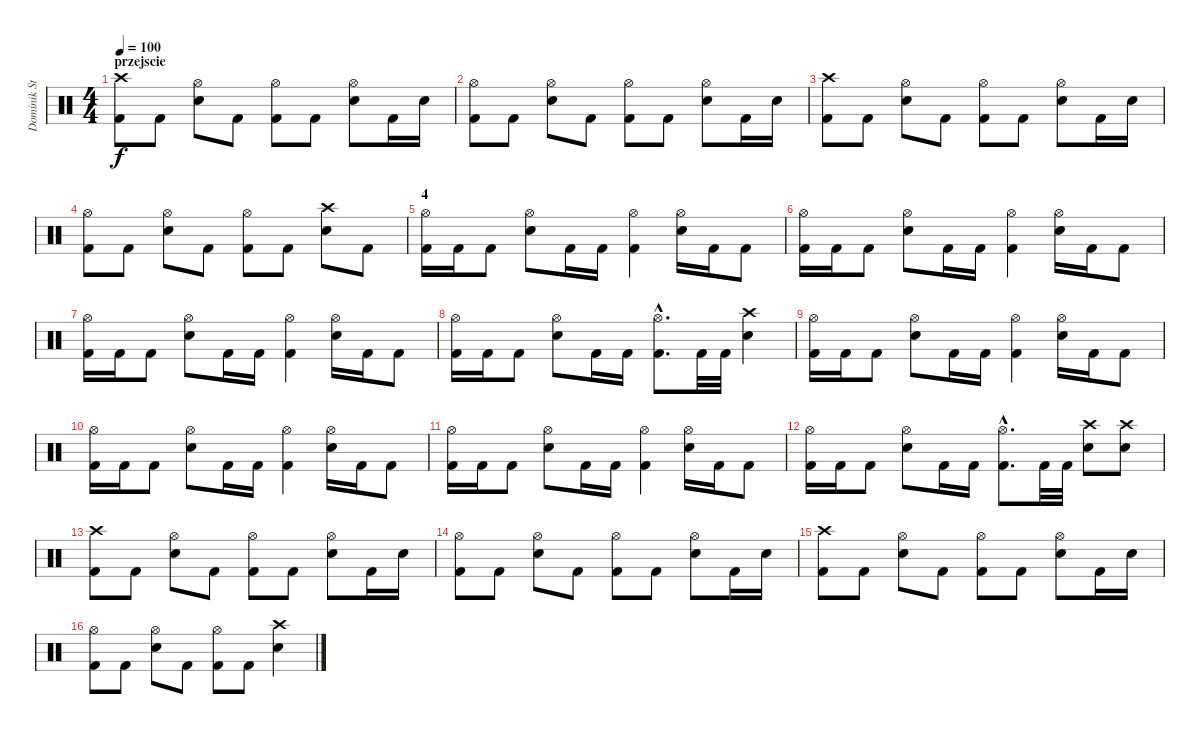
\track ("Dominik Storch" "Dominik St") {instrument percussion}
\staff {score}
\articulation defaults
\ts (4 4)
\section ("" "przejscie")
\tempo 100
\clef neutral
\ks c
("Crash high (hit)" "Kick (hit) 2").8{dy f} "Kick (hit) 2".8 ("Hi-Hat (open)" "Snare (hit) 2").8 "Kick (hit) 2".8 ("Hi-Hat (open)" "Kick (hit) 2").8 "Kick (hit) 2".8 ("Hi-Hat (open)" "Snare (hit) 2").8 "Kick (hit) 2".16 "Snare (hit) 2".16 |
("Hi-Hat (open)" "Kick (hit) 2").8 "Kick (hit) 2".8 ("Hi-Hat (open)" "Snare (hit) 2").8 "Kick (hit) 2".8 ("Hi-Hat (open)" "Kick (hit) 2").8 "Kick (hit) 2".8 ("Hi-Hat (open)" "Snare (hit) 2").8 "Kick (hit) 2".16 "Snare (hit) 2".16 |
("Crash high (hit)" "Kick (hit) 2").8 "Kick (hit) 2".8 ("Hi-Hat (open)" "Snare (hit) 2").8 "Kick (hit) 2".8 ("Hi-Hat (open)" "Kick (hit) 2").8 "Kick (hit) 2".8 ("Hi-Hat (open)" "Snare (hit) 2").8 "Kick (hit) 2".16 "Snare (hit) 2".16 |
("Hi-Hat (open)" "Kick (hit) 2").8 "Kick (hit) 2".8 ("Hi-Hat (open)" "Snare (hit) 2").8 "Kick (hit) 2".8 ("Hi-Hat (open)" "Kick (hit) 2").8 "Kick (hit) 2".8 ("Crash high (hit)" "Snare (hit) 2").8 "Kick (hit) 2".8 |
\section ("" "4")
("Hi-Hat (open)" "Kick (hit) 2").16 "Kick (hit) 2".16 "Kick (hit) 2".8 ("Hi-Hat (open)" "Snare (hit) 2").8 "Kick (hit) 2".16 "Kick (hit) 2".16 ("Hi-Hat (open)" "Kick (hit) 2").4 ("Hi-Hat (open)" "Snare (hit) 2").16 "Kick (hit) 2".16 "Kick (hit) 2".8 |
("Hi-Hat (open)" "Kick (hit) 2").16 "Kick (hit) 2".16 "Kick (hit) 2".8 ("Hi-Hat (open)" "Snare (hit) 2").8 "Kick (hit) 2".16 "Kick (hit) 2".16 ("Hi-Hat (open)" "Kick (hit) 2").4 ("Hi-Hat (open)" "Snare (hit) 2").16 "Kick (hit) 2".16 "Kick (hit) 2".8 |
("Hi-Hat (open)" "Kick (hit) 2").16 "Kick (hit) 2".16 "Kick (hit) 2".8 ("Hi-Hat (open)" "Snare (hit) 2").8 "Kick (hit) 2".16 "Kick (hit) 2".16 ("Hi-Hat (open)" "Kick (hit) 2").4 ("Hi-Hat (open)" "Snare (hit) 2").16 "Kick (hit) 2".16 "Kick (hit) 2".8 |
("Hi-Hat (open)" "Kick (hit) 2").16 "Kick (hit) 2".16 "Kick (hit) 2".8 ("Hi-Hat (open)" "Snare (hit) 2").8 "Kick (hit) 2".16 "Kick (hit) 2".16 ("Hi-Hat (open)"{hac} "Kick (hit) 2"{hac}).8{d} "Kick (hit) 2".32 "Kick (hit) 2".32 ("Crash high (hit)" "Snare (hit) 2").4 |
("Hi-Hat (open)" "Kick (hit) 2").16 "Kick (hit) 2".16 "Kick (hit) 2".8 ("Hi-Hat (open)" "Snare (hit) 2").8 "Kick (hit) 2".16 "Kick (hit) 2".16 ("Hi-Hat (open)" "Kick (hit) 2").4 ("Hi-Hat (open)" "Snare (hit) 2").16 "Kick (hit) 2".16 "Kick (hit) 2".8 |
("Hi-Hat (open)" "Kick (hit) 2").16 "Kick (hit) 2".16 "Kick (hit) 2".8 ("Hi-Hat (open)" "Snare (hit) 2").8 "Kick (hit) 2".16 "Kick (hit) 2".16 ("Hi-Hat (open)" "Kick (hit) 2").4 ("Hi-Hat (open)" "Snare (hit) 2").16 "Kick (hit) 2".16 "Kick (hit) 2".8 |
("Hi-Hat (open)" "Kick (hit) 2").16 "Kick (hit) 2".16 "Kick (hit) 2".8 ("Hi-Hat (open)" "Snare (hit) 2").8 "Kick (hit) 2".16 "Kick (hit) 2".16 ("Hi-Hat (open)" "Kick (hit) 2").4 ("Hi-Hat (open)" "Snare (hit) 2").16 "Kick (hit) 2".16 "Kick (hit) 2".8 |
("Hi-Hat (open)" "Kick (hit) 2").16 "Kick (hit) 2".16 "Kick (hit) 2".8 ("Hi-Hat (open)" "Snare (hit) 2").8 "Kick (hit) 2".16 "Kick (hit) 2".16 ("Hi-Hat (open)"{hac} "Kick (hit) 2"{hac}).8{d} "Kick (hit) 2".32 "Kick (hit) 2".32 ("Crash high (hit)" "Snare (hit) 2").8 ("Crash high (hit)" "Snare (hit) 2").8 |
("Crash high (hit)" "Kick (hit) 2").8 "Kick (hit) 2".8 ("Hi-Hat (open)" "Snare (hit) 2").8 "Kick (hit) 2".8 ("Hi-Hat (open)" "Kick (hit) 2").8 "Kick (hit) 2".8 ("Hi-Hat (open)" "Snare (hit) 2").8 "Kick (hit) 2".16 "Snare (hit) 2".16 |
("Hi-Hat (open)" "Kick (hit) 2").8 "Kick (hit) 2".8 ("Hi-Hat (open)" "Snare (hit) 2").8 "Kick (hit) 2".8 ("Hi-Hat (open)" "Kick (hit) 2").8 "Kick (hit) 2".8 ("Hi-Hat (open)" "Snare (hit) 2").8 "Kick (hit) 2".16 "Snare (hit) 2".16 |
("Crash high (hit)" "Kick (hit) 2").8 "Kick (hit) 2".8 ("Hi-Hat (open)" "Snare (hit) 2").8 "Kick (hit) 2".8 ("Hi-Hat (open)" "Kick (hit) 2").8 "Kick (hit) 2".8 ("Hi-Hat (open)" "Snare (hit) 2").8 "Kick (hit) 2".16 "Snare (hit) 2".16 |
("Hi-Hat (open)" "Kick (hit) 2").8 "Kick (hit) 2".8 ("Hi-Hat (open)" "Snare (hit) 2").8 "Kick (hit) 2".8 ("Hi-Hat (open)" "Kick (hit) 2").8 "Kick (hit) 2".8 ("Crash high (hit)" "Snare (hit) 2").4
